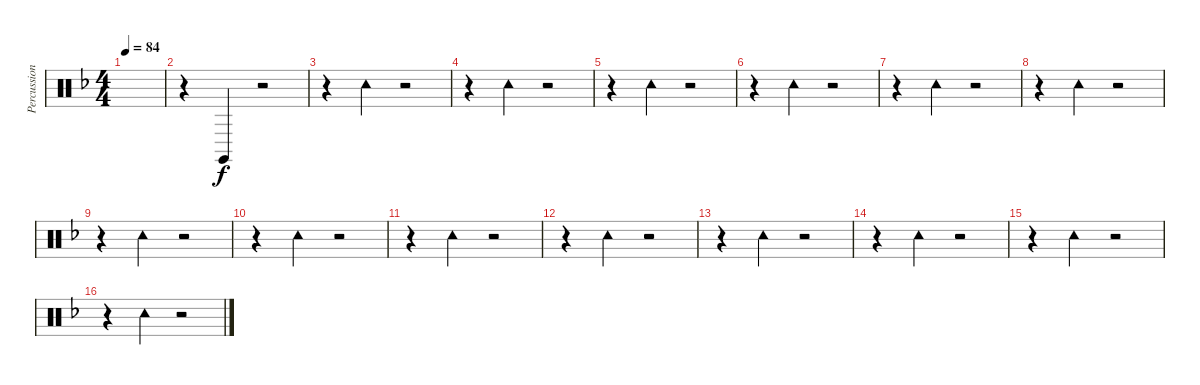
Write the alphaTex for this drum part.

\track ("Percussion" "Percussion") {instrument percussion}
\staff {score}
\articulation defaults
\ts (4 4)
\tempo 84
\clef neutral
\ks dminor
|
r.4 "Claves (hit)".4 r.2 |
r.4 "Tambourine (hit)".4 r.2 |
r.4 "Tambourine (hit)".4 r.2 |
r.4 "Tambourine (hit)".4 r.2 |
r.4 "Tambourine (hit)".4 r.2 |
r.4 "Tambourine (hit)".4 r.2 |
r.4 "Tambourine (hit)".4 r.2 |
r.4 "Tambourine (hit)".4 r.2 |
r.4 "Tambourine (hit)".4 r.2 |
r.4 "Tambourine (hit)".4 r.2 |
r.4 "Tambourine (hit)".4 r.2 |
r.4 "Tambourine (hit)".4 r.2 |
r.4 "Tambourine (hit)".4 r.2 |
r.4 "Tambourine (hit)".4 r.2 |
r.4 "Tambourine (hit)".4 r.2
